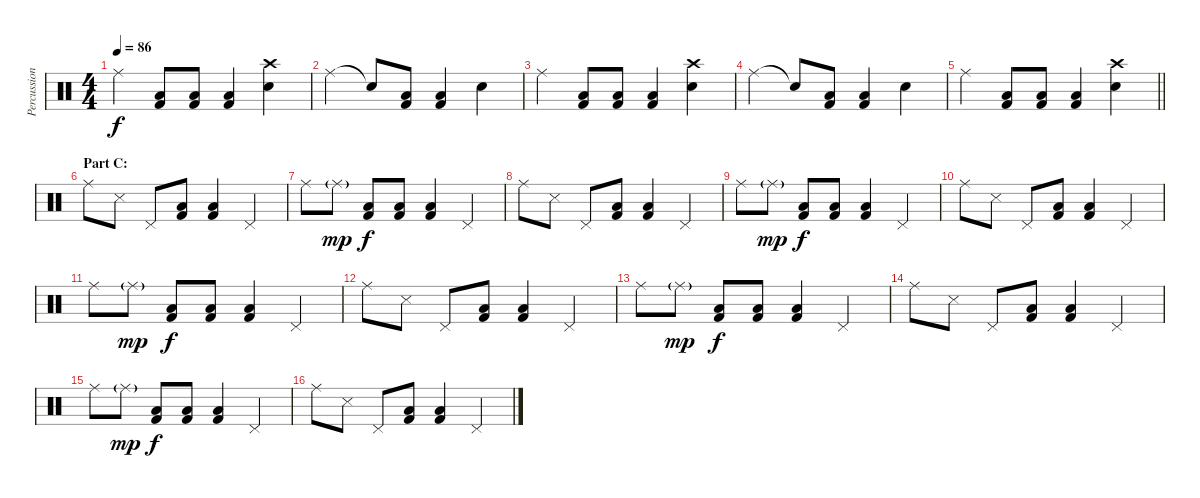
\track ("Percussion" "Percussion") {instrument percussion}
\staff {score}
\articulation defaults
\ts (4 4)
\tempo 86
\clef neutral
\ks c "Ride (middle)".4{dy f}
("Low Tom (hit)" "Kick (hit) 2").8 ("Low Tom (hit)" "Kick (hit) 2").8 ("Low Tom (hit)" "Kick (hit) 2").4 ("Crash high (hit)" "Snare (hit) 2").4 |
"Ride (middle)".4 "Snare (hit)"{t}.8 ("Low Tom (hit)" "Kick (hit) 2").8 ("Low Tom (hit)" "Kick (hit) 2").4 "Snare (hit) 2".4 |
"Ride (middle)".4 ("Low Tom (hit)" "Kick (hit) 2").8 ("Low Tom (hit)" "Kick (hit) 2").8 ("Low Tom (hit)" "Kick (hit) 2").4 ("Crash high (hit)" "Snare (hit) 2").4 |
"Ride (middle)".4 "Snare (hit)"{t}.8 ("Low Tom (hit)" "Kick (hit) 2").8 ("Low Tom (hit)" "Kick (hit) 2").4 "Snare (hit) 2".4 |
\barLineRight lightlight "Ride (middle)".4
("Low Tom (hit)" "Kick (hit) 2").8 ("Low Tom (hit)" "Kick (hit) 2").8 ("Low Tom (hit)" "Kick (hit) 2").4 ("Crash high (hit)" "Snare (hit) 2").4 |
\section ("" "Part C:")
"Ride (middle)".8 "Snare (side stick) 3".8 "Pedal Hi-Hat (hit)".8 ("Low Tom (hit)" "Kick (hit) 2").8 ("Low Tom (hit)" "Kick (hit) 2").4 "Pedal Hi-Hat (hit)".4 |
"Ride (middle)".8 "Ride (middle)"{g}.8{dy mp} ("Low Tom (hit)" "Kick (hit) 2").8{dy f} ("Low Tom (hit)" "Kick (hit) 2").8 ("Low Tom (hit)" "Kick (hit) 2").4 "Pedal Hi-Hat (hit)".4 |
"Ride (middle)".8 "Snare (side stick) 3".8 "Pedal Hi-Hat (hit)".8 ("Low Tom (hit)" "Kick (hit) 2").8 ("Low Tom (hit)" "Kick (hit) 2").4 "Pedal Hi-Hat (hit)".4 |
"Ride (middle)".8 "Ride (middle)"{g}.8{dy mp} ("Low Tom (hit)" "Kick (hit) 2").8{dy f} ("Low Tom (hit)" "Kick (hit) 2").8 ("Low Tom (hit)" "Kick (hit) 2").4 "Pedal Hi-Hat (hit)".4 |
"Ride (middle)".8 "Snare (side stick) 3".8 "Pedal Hi-Hat (hit)".8 ("Low Tom (hit)" "Kick (hit) 2").8 ("Low Tom (hit)" "Kick (hit) 2").4 "Pedal Hi-Hat (hit)".4 |
"Ride (middle)".8 "Ride (middle)"{g}.8{dy mp} ("Low Tom (hit)" "Kick (hit) 2").8{dy f} ("Low Tom (hit)" "Kick (hit) 2").8 ("Low Tom (hit)" "Kick (hit) 2").4 "Pedal Hi-Hat (hit)".4 |
"Ride (middle)".8 "Snare (side stick) 3".8 "Pedal Hi-Hat (hit)".8 ("Low Tom (hit)" "Kick (hit) 2").8 ("Low Tom (hit)" "Kick (hit) 2").4 "Pedal Hi-Hat (hit)".4 |
"Ride (middle)".8 "Ride (middle)"{g}.8{dy mp} ("Low Tom (hit)" "Kick (hit) 2").8{dy f} ("Low Tom (hit)" "Kick (hit) 2").8 ("Low Tom (hit)" "Kick (hit) 2").4 "Pedal Hi-Hat (hit)".4 |
"Ride (middle)".8 "Snare (side stick) 3".8 "Pedal Hi-Hat (hit)".8 ("Low Tom (hit)" "Kick (hit) 2").8 ("Low Tom (hit)" "Kick (hit) 2").4 "Pedal Hi-Hat (hit)".4 |
"Ride (middle)".8 "Ride (middle)"{g}.8{dy mp} ("Low Tom (hit)" "Kick (hit) 2").8{dy f} ("Low Tom (hit)" "Kick (hit) 2").8 ("Low Tom (hit)" "Kick (hit) 2").4 "Pedal Hi-Hat (hit)".4 |
"Ride (middle)".8 "Snare (side stick) 3".8 "Pedal Hi-Hat (hit)".8 ("Low Tom (hit)" "Kick (hit) 2").8 ("Low Tom (hit)" "Kick (hit) 2").4 "Pedal Hi-Hat (hit)".4
